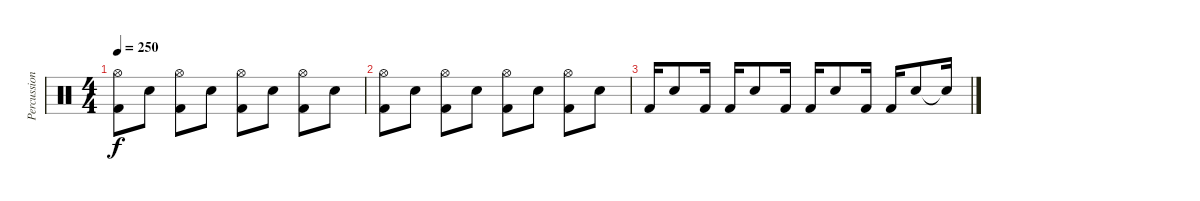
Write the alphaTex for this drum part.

\track ("Percussioni" "Percussion") {instrument percussion}
\staff {score}
\articulation defaults
\ts (4 4)
\tempo 250
\clef neutral
\ks c
("Hi-Hat (open)" "Kick (hit) 2").8{dy f} "Electric Snare (hit)".8 ("Hi-Hat (open)" "Kick (hit) 2").8 "Electric Snare (hit)".8 ("Hi-Hat (open)" "Kick (hit) 2").8 "Electric Snare (hit)".8 ("Hi-Hat (open)" "Kick (hit) 2").8 "Electric Snare (hit)".8 |
("Hi-Hat (open)" "Kick (hit) 2").8 "Electric Snare (hit)".8 ("Hi-Hat (open)" "Kick (hit) 2").8 "Electric Snare (hit)".8 ("Hi-Hat (open)" "Kick (hit) 2").8 "Electric Snare (hit)".8 ("Hi-Hat (open)" "Kick (hit) 2").8 "Electric Snare (hit)".8 |
"Kick (hit) 2".16 "Electric Snare (hit)".8 "Kick (hit) 2".16 "Kick (hit) 2".16 "Electric Snare (hit)".8 "Kick (hit) 2".16 "Kick (hit) 2".16 "Electric Snare (hit)".8 "Kick (hit) 2".16 "Kick (hit) 2".16 "Electric Snare (hit)".8 "Snare (hit)"{t}.16
